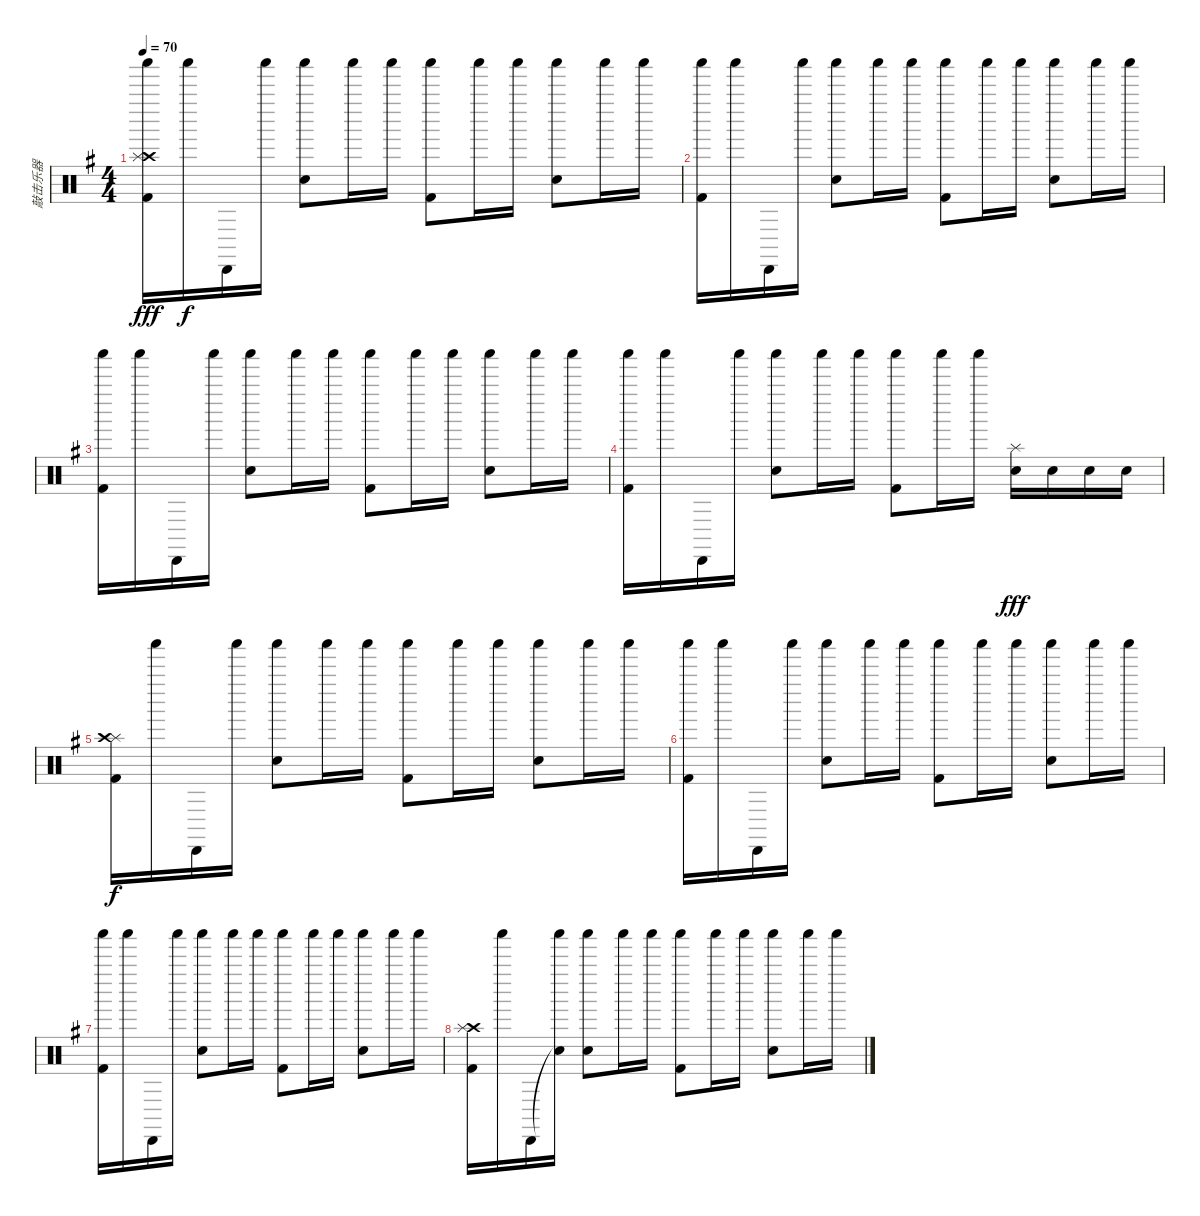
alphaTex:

\track ("敲击乐器" "敲击乐器") {instrument percussion}
\staff {score}
\articulation defaults
\ts (4 4)
\tempo 70
\clef neutral
\ks g
("Crash high (hit)" "Shaker (hit)" "Splash (hit)" "Kick (hit) 2").16{dy fff} "Shaker (hit)".16{dy f} "Cabasa (hit)".16 "Shaker (hit)".16 ("Shaker (hit)" "Snare (hit) 2").8 "Shaker (hit)".16 "Shaker (hit)".16 ("Shaker (hit)" "Kick (hit) 2").8 "Shaker (hit)".16 "Shaker (hit)".16 ("Shaker (hit)" "Snare (hit) 2").8 "Shaker (hit)".16 "Shaker (hit)".16 |
("Shaker (hit)" "Kick (hit) 2").16 "Shaker (hit)".16 "Cabasa (hit)".16 "Shaker (hit)".16 ("Shaker (hit)" "Snare (hit) 2").8 "Shaker (hit)".16 "Shaker (hit)".16 ("Shaker (hit)" "Kick (hit) 2").8 "Shaker (hit)".16 "Shaker (hit)".16 ("Shaker (hit)" "Snare (hit) 2").8 "Shaker (hit)".16 "Shaker (hit)".16 |
("Shaker (hit)" "Kick (hit) 2").16 "Shaker (hit)".16 "Cabasa (hit)".16 "Shaker (hit)".16 ("Shaker (hit)" "Snare (hit) 2").8 "Shaker (hit)".16 "Shaker (hit)".16 ("Shaker (hit)" "Kick (hit) 2").8 "Shaker (hit)".16 "Shaker (hit)".16 ("Shaker (hit)" "Snare (hit) 2").8 "Shaker (hit)".16 "Shaker (hit)".16 |
("Shaker (hit)" "Kick (hit) 2").16 "Shaker (hit)".16 "Cabasa (hit)".16 "Shaker (hit)".16 ("Shaker (hit)" "Snare (hit) 2").8 "Shaker (hit)".16 "Shaker (hit)".16 ("Shaker (hit)" "Kick (hit) 2").8 "Shaker (hit)".16 "Shaker (hit)".16 ("Splash (hit)" "Snare (hit) 2").16{dy fff} "Snare (hit) 2".16 "Snare (hit) 2".16 "Snare (hit) 2".16 |
("Splash (hit)" "Crash high (hit)" "Kick (hit) 2").16{dy f} "Shaker (hit)".16 "Cabasa (hit)".16 "Shaker (hit)".16 ("Shaker (hit)" "Snare (hit) 2").8 "Shaker (hit)".16 "Shaker (hit)".16 ("Shaker (hit)" "Kick (hit) 2").8 "Shaker (hit)".16 "Shaker (hit)".16 ("Shaker (hit)" "Snare (hit) 2").8 "Shaker (hit)".16 "Shaker (hit)".16 |
("Shaker (hit)" "Kick (hit) 2").16 "Shaker (hit)".16 "Cabasa (hit)".16 "Shaker (hit)".16 ("Shaker (hit)" "Snare (hit) 2").8 "Shaker (hit)".16 "Shaker (hit)".16 ("Shaker (hit)" "Kick (hit) 2").8 "Shaker (hit)".16 "Shaker (hit)".16 ("Shaker (hit)" "Snare (hit) 2").8 "Shaker (hit)".16 "Shaker (hit)".16 |
("Shaker (hit)" "Kick (hit) 2").16 "Shaker (hit)".16 "Cabasa (hit)".16 "Shaker (hit)".16 ("Shaker (hit)" "Snare (hit) 2").8 "Shaker (hit)".16 "Shaker (hit)".16 ("Shaker (hit)" "Kick (hit) 2").8 "Shaker (hit)".16 "Shaker (hit)".16 ("Shaker (hit)" "Snare (hit) 2").8 "Shaker (hit)".16 "Shaker (hit)".16 |
("Crash high (hit)" "Splash (hit)" "Kick (hit) 2").16 "Shaker (hit)".16 "Cabasa (hit)".16 ("Snare (hit)"{t} "Shaker (hit)").16 ("Shaker (hit)" "Snare (hit) 2").8 "Shaker (hit)".16 "Shaker (hit)".16 ("Shaker (hit)" "Kick (hit) 2").8 "Shaker (hit)".16 "Shaker (hit)".16 ("Shaker (hit)" "Snare (hit) 2").8 "Shaker (hit)".16 "Shaker (hit)".16
